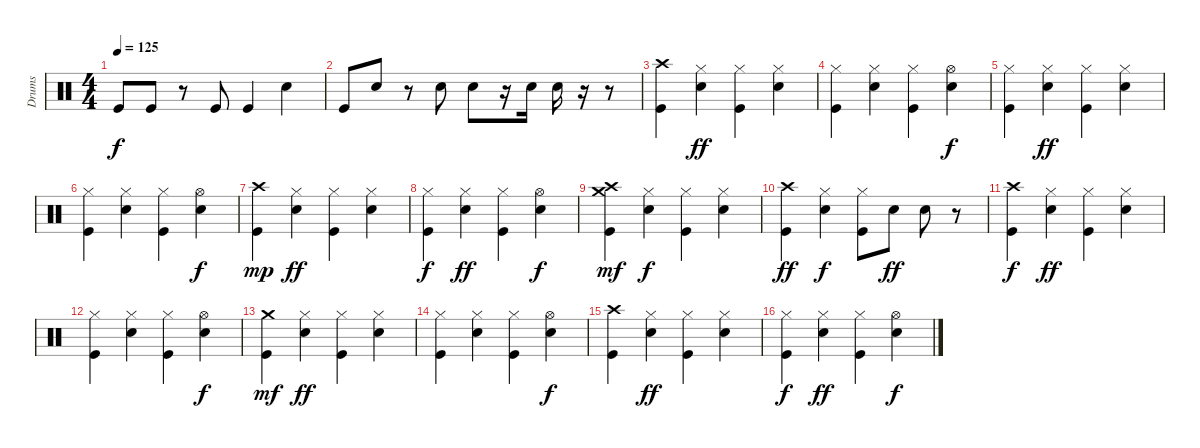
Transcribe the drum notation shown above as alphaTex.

\track ("Drums" "Drums") {instrument percussion}
\staff {score}
\articulation defaults
\ts (4 4)
\tempo 125
\clef neutral
\ks c "Kick (hit)".8{dy f} "Kick (hit)".8
r.8 "Kick (hit)".8 "Kick (hit)".4 "Snare (hit) 2".4 |
"Kick (hit)".8 "Snare (hit) 2".8 r.8 "Snare (hit) 2".8 "Snare (hit) 2".8 r.16 "Snare (hit) 2".16 "Snare (hit) 2".16 r.16 r.8 |
("Crash high (hit)" "Kick (hit)").4 ("Hi-Hat (closed)" "Snare (hit) 2").4{dy ff} ("Hi-Hat (closed)" "Kick (hit)").4 ("Hi-Hat (closed)" "Snare (hit) 2").4 |
("Hi-Hat (closed)" "Kick (hit)").4 ("Hi-Hat (closed)" "Snare (hit) 2").4 ("Hi-Hat (closed)" "Kick (hit)").4 ("Hi-Hat (open)" "Snare (hit) 2").4{dy f} |
("Hi-Hat (closed)" "Kick (hit)").4 ("Hi-Hat (closed)" "Snare (hit) 2").4{dy ff} ("Hi-Hat (closed)" "Kick (hit)").4 ("Hi-Hat (closed)" "Snare (hit) 2").4 |
("Hi-Hat (closed)" "Kick (hit)").4 ("Hi-Hat (closed)" "Snare (hit) 2").4 ("Hi-Hat (closed)" "Kick (hit)").4 ("Hi-Hat (open)" "Snare (hit) 2").4{dy f} |
("Kick (hit)" "Crash high (hit)").4{dy mp} ("Snare (hit) 2" "Hi-Hat (closed)").4{dy ff} ("Kick (hit)" "Hi-Hat (closed)").4 ("Snare (hit) 2" "Hi-Hat (closed)").4 |
("Hi-Hat (closed)" "Kick (hit)").4{dy f} ("Hi-Hat (closed)" "Snare (hit) 2").4{dy ff} ("Hi-Hat (closed)" "Kick (hit)").4 ("Hi-Hat (open)" "Snare (hit) 2").4{dy f} |
("Crash high (hit)" "Kick (hit)" "Crash medium (hit)").4{dy mf} ("Snare (hit) 2" "Hi-Hat (closed)").4{dy f} ("Kick (hit)" "Hi-Hat (closed)").4 ("Snare (hit) 2" "Hi-Hat (closed)").4 |
("Crash high (hit)" "Kick (hit)").4{dy ff} ("Snare (hit) 2" "Hi-Hat (closed)").4{dy f} ("Kick (hit)" "Hi-Hat (closed)").8 "Snare (hit) 2".8{dy ff} "Snare (hit) 2".8 r.8 |
("Crash high (hit)" "Kick (hit)").4{dy f} ("Hi-Hat (closed)" "Snare (hit) 2").4{dy ff} ("Hi-Hat (closed)" "Kick (hit)").4 ("Hi-Hat (closed)" "Snare (hit) 2").4 |
("Hi-Hat (closed)" "Kick (hit)").4 ("Hi-Hat (closed)" "Snare (hit) 2").4 ("Hi-Hat (closed)" "Kick (hit)").4 ("Hi-Hat (open)" "Snare (hit) 2").4{dy f} |
("Crash medium (hit)" "Kick (hit)").4{dy mf} ("Hi-Hat (closed)" "Snare (hit) 2").4{dy ff} ("Hi-Hat (closed)" "Kick (hit)").4 ("Hi-Hat (closed)" "Snare (hit) 2").4 |
("Hi-Hat (closed)" "Kick (hit)").4 ("Hi-Hat (closed)" "Snare (hit) 2").4 ("Hi-Hat (closed)" "Kick (hit)").4 ("Hi-Hat (open)" "Snare (hit) 2").4{dy f} |
("Kick (hit)" "Crash high (hit)").4 ("Snare (hit) 2" "Hi-Hat (closed)").4{dy ff} ("Kick (hit)" "Hi-Hat (closed)").4 ("Snare (hit) 2" "Hi-Hat (closed)").4 |
("Hi-Hat (closed)" "Kick (hit)").4{dy f} ("Hi-Hat (closed)" "Snare (hit) 2").4{dy ff} ("Hi-Hat (closed)" "Kick (hit)").4 ("Hi-Hat (open)" "Snare (hit) 2").4{dy f}
